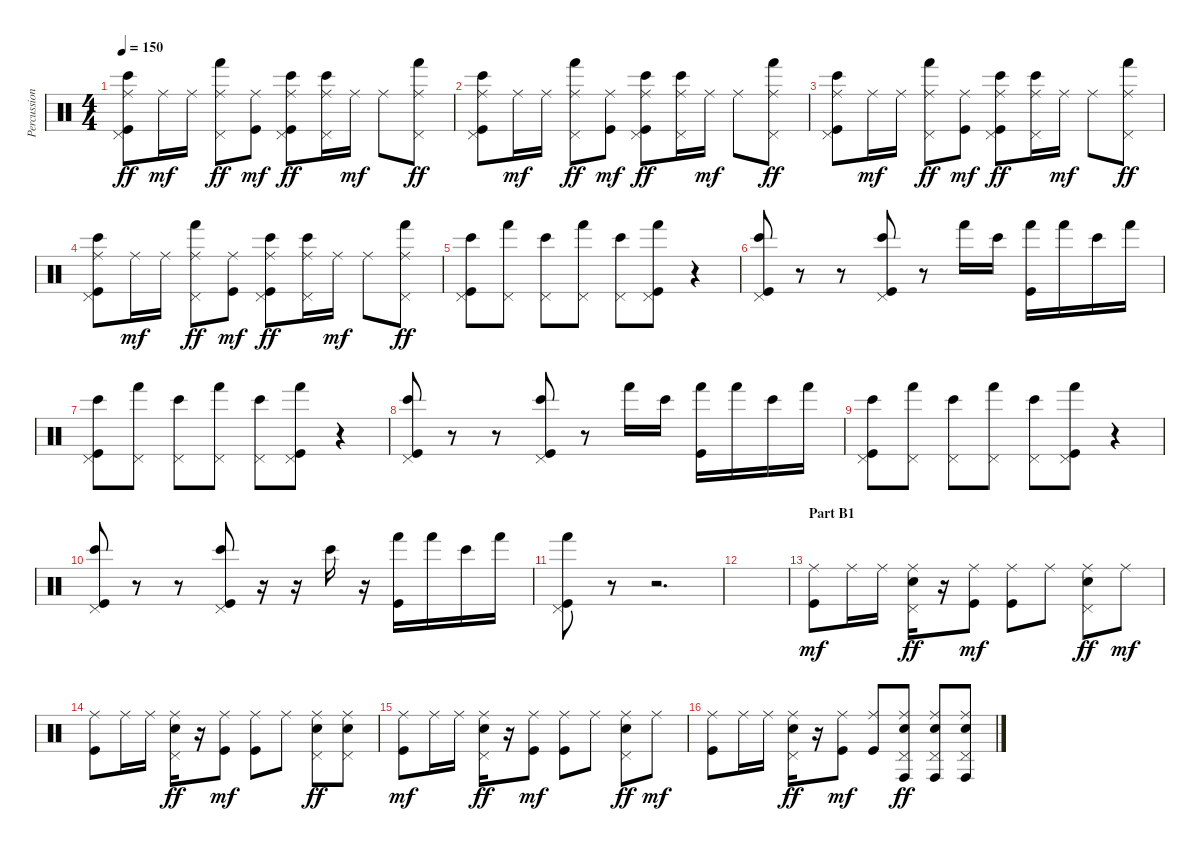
\track ("Percussion" "Percussion") {instrument percussion}
\staff {score}
\articulation defaults
\ts (4 4)
\tempo 150
\clef neutral
\ks c
("Ride (middle)" "Pedal Hi-Hat (hit)" "Bongo High (hit)" "Kick (hit)").8{dy ff} "Ride (middle)".16{dy mf} "Ride (middle)".16 ("Ride (middle)" "Pedal Hi-Hat (hit)" "Hand (hit)").8{dy ff} ("Ride (middle)" "Kick (hit)").8{dy mf} ("Ride (middle)" "Pedal Hi-Hat (hit)" "Bongo High (hit)" "Kick (hit)").8{dy ff} ("Ride (middle)" "Pedal Hi-Hat (hit)" "Bongo High (hit)").16 "Ride (middle)".16{dy mf} "Ride (middle)".8 ("Ride (middle)" "Pedal Hi-Hat (hit)" "Hand (hit)").8{dy ff} |
("Ride (middle)" "Pedal Hi-Hat (hit)" "Bongo High (hit)" "Kick (hit)").8 "Ride (middle)".16{dy mf} "Ride (middle)".16 ("Ride (middle)" "Pedal Hi-Hat (hit)" "Hand (hit)").8{dy ff} ("Ride (middle)" "Kick (hit)").8{dy mf} ("Ride (middle)" "Pedal Hi-Hat (hit)" "Bongo High (hit)" "Kick (hit)").8{dy ff} ("Ride (middle)" "Pedal Hi-Hat (hit)" "Bongo High (hit)").16 "Ride (middle)".16{dy mf} "Ride (middle)".8 ("Ride (middle)" "Pedal Hi-Hat (hit)" "Hand (hit)").8{dy ff} |
("Ride (middle)" "Pedal Hi-Hat (hit)" "Bongo High (hit)" "Kick (hit)").8 "Ride (middle)".16{dy mf} "Ride (middle)".16 ("Ride (middle)" "Pedal Hi-Hat (hit)" "Hand (hit)").8{dy ff} ("Ride (middle)" "Kick (hit)").8{dy mf} ("Ride (middle)" "Pedal Hi-Hat (hit)" "Bongo High (hit)" "Kick (hit)").8{dy ff} ("Ride (middle)" "Pedal Hi-Hat (hit)" "Bongo High (hit)").16 "Ride (middle)".16{dy mf} "Ride (middle)".8 ("Ride (middle)" "Pedal Hi-Hat (hit)" "Hand (hit)").8{dy ff} |
("Ride (middle)" "Pedal Hi-Hat (hit)" "Bongo High (hit)" "Kick (hit)").8 "Ride (middle)".16{dy mf} "Ride (middle)".16 ("Ride (middle)" "Pedal Hi-Hat (hit)" "Hand (hit)").8{dy ff} ("Ride (middle)" "Kick (hit)").8{dy mf} ("Ride (middle)" "Pedal Hi-Hat (hit)" "Bongo High (hit)" "Kick (hit)").8{dy ff} ("Ride (middle)" "Pedal Hi-Hat (hit)" "Bongo High (hit)").16 "Ride (middle)".16{dy mf} "Ride (middle)".8 ("Ride (middle)" "Pedal Hi-Hat (hit)" "Hand (hit)").8{dy ff} |
("Pedal Hi-Hat (hit)" "Bongo High (hit)" "Kick (hit)").8 ("Pedal Hi-Hat (hit)" "Hand (hit)").8 ("Pedal Hi-Hat (hit)" "Bongo High (hit)").8 ("Pedal Hi-Hat (hit)" "Hand (hit)").8 ("Pedal Hi-Hat (hit)" "Bongo High (hit)").8 ("Pedal Hi-Hat (hit)" "Hand (hit)" "Kick (hit)").8 r.4 |
("Pedal Hi-Hat (hit)" "Bongo High (hit)" "Kick (hit)").8 r.8 r.8 ("Pedal Hi-Hat (hit)" "Bongo High (hit)" "Kick (hit)").8 r.8 "Hand (hit)".16 "Bongo High (hit)".16 ("Hand (hit)" "Kick (hit)").16 "Hand (hit)".16 "Bongo High (hit)".16 "Hand (hit)".16 |
("Pedal Hi-Hat (hit)" "Bongo High (hit)" "Kick (hit)").8 ("Pedal Hi-Hat (hit)" "Hand (hit)").8 ("Pedal Hi-Hat (hit)" "Bongo High (hit)").8 ("Pedal Hi-Hat (hit)" "Hand (hit)").8 ("Pedal Hi-Hat (hit)" "Bongo High (hit)").8 ("Pedal Hi-Hat (hit)" "Hand (hit)" "Kick (hit)").8 r.4 |
("Pedal Hi-Hat (hit)" "Bongo High (hit)" "Kick (hit)").8 r.8 r.8 ("Pedal Hi-Hat (hit)" "Bongo High (hit)" "Kick (hit)").8 r.8 "Hand (hit)".16 "Bongo High (hit)".16 ("Hand (hit)" "Kick (hit)").16 "Hand (hit)".16 "Bongo High (hit)".16 "Hand (hit)".16 |
("Pedal Hi-Hat (hit)" "Bongo High (hit)" "Kick (hit)").8 ("Pedal Hi-Hat (hit)" "Hand (hit)").8 ("Pedal Hi-Hat (hit)" "Bongo High (hit)").8 ("Pedal Hi-Hat (hit)" "Hand (hit)").8 ("Pedal Hi-Hat (hit)" "Bongo High (hit)").8 ("Pedal Hi-Hat (hit)" "Hand (hit)" "Kick (hit)").8 r.4 |
("Pedal Hi-Hat (hit)" "Bongo High (hit)" "Kick (hit)").8 r.8 r.8 ("Pedal Hi-Hat (hit)" "Bongo High (hit)" "Kick (hit)").8 r.16 r.16 "Bongo High (hit)".16 r.16 ("Hand (hit)" "Kick (hit)").16 "Hand (hit)".16 "Bongo High (hit)".16 "Hand (hit)".16 |
("Pedal Hi-Hat (hit)" "Hand (hit)" "Kick (hit)").8 r.8 r.2{d} |
|
\section ("" "Part B1")
("Ride (middle)" "Kick (hit)").8{dy mf} "Ride (middle)".16 "Ride (middle)".16 ("Ride (middle)" "Pedal Hi-Hat (hit)" "Electric Snare (hit)").16{dy ff} r.16 ("Ride (middle)" "Kick (hit)").8{dy mf} ("Ride (middle)" "Kick (hit)").8 "Ride (middle)".8 ("Ride (middle)" "Pedal Hi-Hat (hit)" "Electric Snare (hit)").8{dy ff} "Ride (middle)".8{dy mf} |
("Ride (middle)" "Kick (hit)").8 "Ride (middle)".16 "Ride (middle)".16 ("Ride (middle)" "Pedal Hi-Hat (hit)" "Electric Snare (hit)").16{dy ff} r.16 ("Ride (middle)" "Kick (hit)").8{dy mf} ("Ride (middle)" "Kick (hit)").8 "Ride (middle)".8 ("Ride (middle)" "Pedal Hi-Hat (hit)" "Electric Snare (hit)").8{dy ff} ("Ride (middle)" "Pedal Hi-Hat (hit)" "Electric Snare (hit)").8 |
("Ride (middle)" "Kick (hit)").8{dy mf} "Ride (middle)".16 "Ride (middle)".16 ("Ride (middle)" "Pedal Hi-Hat (hit)" "Electric Snare (hit)").16{dy ff} r.16 ("Ride (middle)" "Kick (hit)").8{dy mf} ("Ride (middle)" "Kick (hit)").8 "Ride (middle)".8 ("Ride (middle)" "Pedal Hi-Hat (hit)" "Electric Snare (hit)").8{dy ff} "Ride (middle)".8{dy mf} |
("Ride (middle)" "Kick (hit)").8 "Ride (middle)".16 "Ride (middle)".16 ("Ride (middle)" "Pedal Hi-Hat (hit)" "Electric Snare (hit)").16{dy ff} r.16 ("Ride (middle)" "Kick (hit)").8{dy mf} ("Ride (middle)" "Kick (hit)").8 ("Ride (middle)" "Pedal Hi-Hat (hit)" "Conga high (hit)" "Electric Snare (hit)").8{dy ff} ("Ride (middle)" "Pedal Hi-Hat (hit)" "Conga high (hit)" "Electric Snare (hit)").8 ("Ride (middle)" "Pedal Hi-Hat (hit)" "Conga high (hit)" "Electric Snare (hit)").8
